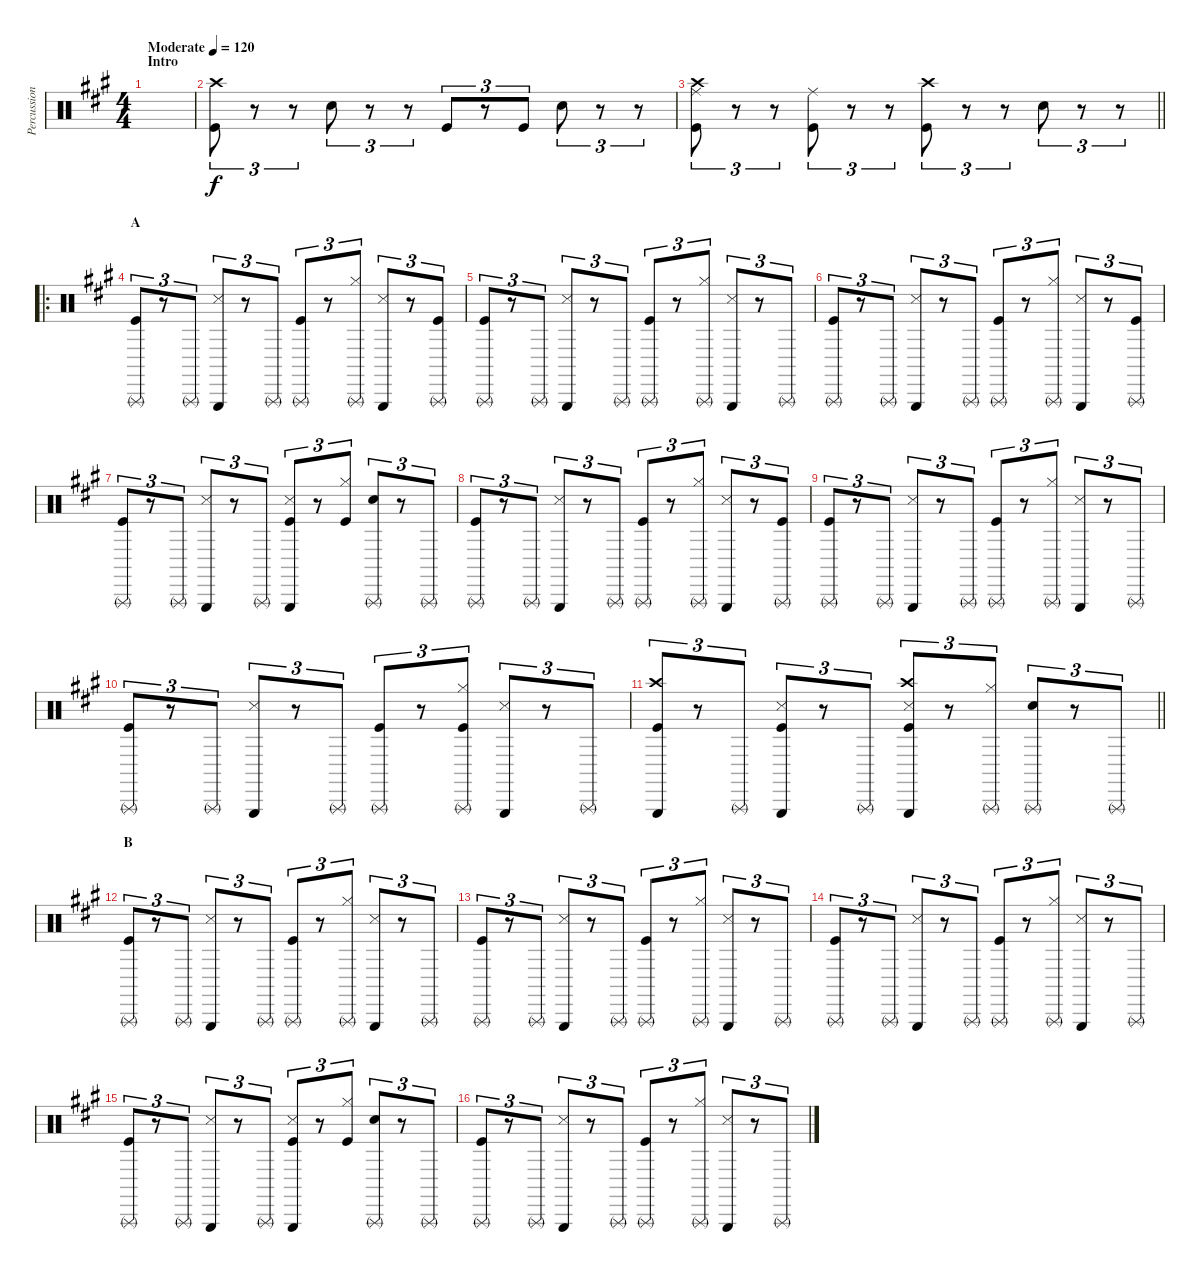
\track ("Percussion" "Percussion") {instrument percussion}
\staff {score}
\articulation defaults
\ts (4 4)
\section ("" "Intro")
\tempo (120 "Moderate")
\clef neutral
\ks a
|
("Crash high (hit)" "Kick (hit)").8{tu (3 2)} r.8{tu (3 2)} r.8{tu (3 2)} "Electric Snare (hit)".8{tu (3 2)} r.8{tu (3 2)} r.8{tu (3 2)} "Kick (hit)".8{tu (3 2)} r.8{tu (3 2)} "Kick (hit)".8{tu (3 2)} "Electric Snare (hit)".8{tu (3 2)} r.8{tu (3 2)} r.8{tu (3 2)} |
\barLineRight lightlight
("Crash high (hit)" "Ride (middle)" "Kick (hit)").8{tu (3 2)} r.8{tu (3 2)} r.8{tu (3 2)} ("Ride (middle)" "Kick (hit)").8{tu (3 2)} r.8{tu (3 2)} r.8{tu (3 2)} ("Crash high (hit)" "Kick (hit)").8{tu (3 2)} r.8{tu (3 2)} r.8{tu (3 2)} "Hand Clap (hit)".8{tu (3 2)} r.8{tu (3 2)} r.8{tu (3 2)} |
\ro
\section ("" "A")
("Kick (hit)" "Triangle (rnute)").8{tu (3 2)} r.8{tu (3 2)} "Triangle (rnute)".8{tu (3 2)} ("Snare (side stick) 3" "Triangle (hit)").8{tu (3 2)} r.8{tu (3 2)} "Triangle (rnute)".8{tu (3 2)} ("Kick (hit)" "Triangle (rnute)").8{tu (3 2)} r.8{tu (3 2)} ("Hi-Hat (closed)" "Triangle (rnute)").8{tu (3 2)} ("Snare (side stick) 3" "Triangle (hit)").8{tu (3 2)} r.8{tu (3 2)} ("Kick (hit)" "Triangle (rnute)").8{tu (3 2)} |
("Kick (hit)" "Triangle (rnute)").8{tu (3 2)} r.8{tu (3 2)} "Triangle (rnute)".8{tu (3 2)} ("Snare (side stick) 3" "Triangle (hit)").8{tu (3 2)} r.8{tu (3 2)} "Triangle (rnute)".8{tu (3 2)} ("Kick (hit)" "Triangle (rnute)").8{tu (3 2)} r.8{tu (3 2)} ("Hi-Hat (closed)" "Triangle (rnute)").8{tu (3 2)} ("Snare (side stick) 3" "Triangle (hit)").8{tu (3 2)} r.8{tu (3 2)} "Triangle (rnute)".8{tu (3 2)} |
("Kick (hit)" "Triangle (rnute)").8{tu (3 2)} r.8{tu (3 2)} "Triangle (rnute)".8{tu (3 2)} ("Snare (side stick) 3" "Triangle (hit)").8{tu (3 2)} r.8{tu (3 2)} "Triangle (rnute)".8{tu (3 2)} ("Kick (hit)" "Triangle (rnute)").8{tu (3 2)} r.8{tu (3 2)} ("Hi-Hat (closed)" "Triangle (rnute)").8{tu (3 2)} ("Snare (side stick) 3" "Triangle (hit)").8{tu (3 2)} r.8{tu (3 2)} ("Kick (hit)" "Triangle (rnute)").8{tu (3 2)} |
("Kick (hit)" "Triangle (rnute)").8{tu (3 2)} r.8{tu (3 2)} "Triangle (rnute)".8{tu (3 2)} ("Snare (side stick) 3" "Triangle (hit)").8{tu (3 2)} r.8{tu (3 2)} "Triangle (rnute)".8{tu (3 2)} ("Snare (side stick) 3" "Kick (hit)" "Triangle (hit)").8{tu (3 2)} r.8{tu (3 2)} ("Hi-Hat (closed)" "Kick (hit)").8{tu (3 2)} ("Hand Clap (hit)" "Triangle (rnute)").8{tu (3 2)} r.8{tu (3 2)} "Triangle (rnute)".8{tu (3 2)} |
("Kick (hit)" "Triangle (rnute)").8{tu (3 2)} r.8{tu (3 2)} "Triangle (rnute)".8{tu (3 2)} ("Snare (side stick) 3" "Triangle (hit)").8{tu (3 2)} r.8{tu (3 2)} "Triangle (rnute)".8{tu (3 2)} ("Kick (hit)" "Triangle (rnute)").8{tu (3 2)} r.8{tu (3 2)} ("Hi-Hat (closed)" "Triangle (rnute)").8{tu (3 2)} ("Snare (side stick) 3" "Triangle (hit)").8{tu (3 2)} r.8{tu (3 2)} ("Kick (hit)" "Triangle (rnute)").8{tu (3 2)} |
("Kick (hit)" "Triangle (rnute)").8{tu (3 2)} r.8{tu (3 2)} "Triangle (rnute)".8{tu (3 2)} ("Snare (side stick) 3" "Triangle (hit)").8{tu (3 2)} r.8{tu (3 2)} "Triangle (rnute)".8{tu (3 2)} ("Kick (hit)" "Triangle (rnute)").8{tu (3 2)} r.8{tu (3 2)} ("Hi-Hat (closed)" "Triangle (rnute)").8{tu (3 2)} ("Snare (side stick) 3" "Triangle (hit)").8{tu (3 2)} r.8{tu (3 2)} "Triangle (rnute)".8{tu (3 2)} |
("Kick (hit)" "Triangle (rnute)").8{tu (3 2)} r.8{tu (3 2)} "Triangle (rnute)".8{tu (3 2)} ("Snare (side stick) 3" "Triangle (hit)").8{tu (3 2)} r.8{tu (3 2)} "Triangle (rnute)".8{tu (3 2)} ("Kick (hit)" "Triangle (rnute)").8{tu (3 2)} r.8{tu (3 2)} ("Hi-Hat (closed)" "Kick (hit)" "Triangle (rnute)").8{tu (3 2)} ("Snare (side stick) 3" "Triangle (hit)").8{tu (3 2)} r.8{tu (3 2)} "Triangle (rnute)".8{tu (3 2)} |
\barLineRight lightlight
("Crash high (hit)" "Kick (hit)" "Triangle (hit)").8{tu (3 2)} r.8{tu (3 2)} "Triangle (rnute)".8{tu (3 2)} ("Snare (side stick) 3" "Kick (hit)" "Triangle (hit)").8{tu (3 2)} r.8{tu (3 2)} "Triangle (rnute)".8{tu (3 2)} ("Crash high (hit)" "Snare (side stick) 3" "Kick (hit)" "Triangle (hit)").8{tu (3 2)} r.8{tu (3 2)} ("Hi-Hat (closed)" "Triangle (rnute)").8{tu (3 2)} ("Hand Clap (hit)" "Triangle (rnute)").8{tu (3 2)} r.8{tu (3 2)} "Triangle (rnute)".8{tu (3 2)} |
\section ("" "B")
("Kick (hit)" "Triangle (rnute)").8{tu (3 2)} r.8{tu (3 2)} "Triangle (rnute)".8{tu (3 2)} ("Snare (side stick) 3" "Triangle (hit)").8{tu (3 2)} r.8{tu (3 2)} "Triangle (rnute)".8{tu (3 2)} ("Kick (hit)" "Triangle (rnute)").8{tu (3 2)} r.8{tu (3 2)} ("Hi-Hat (closed)" "Triangle (rnute)").8{tu (3 2)} ("Snare (side stick) 3" "Triangle (hit)").8{tu (3 2)} r.8{tu (3 2)} "Triangle (rnute)".8{tu (3 2)} |
("Kick (hit)" "Triangle (rnute)").8{tu (3 2)} r.8{tu (3 2)} "Triangle (rnute)".8{tu (3 2)} ("Snare (side stick) 3" "Triangle (hit)").8{tu (3 2)} r.8{tu (3 2)} "Triangle (rnute)".8{tu (3 2)} ("Kick (hit)" "Triangle (rnute)").8{tu (3 2)} r.8{tu (3 2)} ("Hi-Hat (closed)" "Triangle (rnute)").8{tu (3 2)} ("Snare (side stick) 3" "Triangle (hit)").8{tu (3 2)} r.8{tu (3 2)} "Triangle (rnute)".8{tu (3 2)} |
("Kick (hit)" "Triangle (rnute)").8{tu (3 2)} r.8{tu (3 2)} "Triangle (rnute)".8{tu (3 2)} ("Snare (side stick) 3" "Triangle (hit)").8{tu (3 2)} r.8{tu (3 2)} "Triangle (rnute)".8{tu (3 2)} ("Kick (hit)" "Triangle (rnute)").8{tu (3 2)} r.8{tu (3 2)} ("Hi-Hat (closed)" "Triangle (rnute)").8{tu (3 2)} ("Snare (side stick) 3" "Triangle (hit)").8{tu (3 2)} r.8{tu (3 2)} "Triangle (rnute)".8{tu (3 2)} |
("Kick (hit)" "Triangle (rnute)").8{tu (3 2)} r.8{tu (3 2)} "Triangle (rnute)".8{tu (3 2)} ("Snare (side stick) 3" "Triangle (hit)").8{tu (3 2)} r.8{tu (3 2)} "Triangle (rnute)".8{tu (3 2)} ("Snare (side stick) 3" "Kick (hit)" "Triangle (hit)").8{tu (3 2)} r.8{tu (3 2)} ("Hi-Hat (closed)" "Kick (hit)").8{tu (3 2)} ("Hand Clap (hit)" "Triangle (rnute)").8{tu (3 2)} r.8{tu (3 2)} "Triangle (rnute)".8{tu (3 2)} |
("Kick (hit)" "Triangle (rnute)").8{tu (3 2)} r.8{tu (3 2)} "Triangle (rnute)".8{tu (3 2)} ("Snare (side stick) 3" "Triangle (hit)").8{tu (3 2)} r.8{tu (3 2)} "Triangle (rnute)".8{tu (3 2)} ("Kick (hit)" "Triangle (rnute)").8{tu (3 2)} r.8{tu (3 2)} ("Hi-Hat (closed)" "Triangle (rnute)").8{tu (3 2)} ("Snare (side stick) 3" "Triangle (hit)").8{tu (3 2)} r.8{tu (3 2)} "Triangle (rnute)".8{tu (3 2)}
